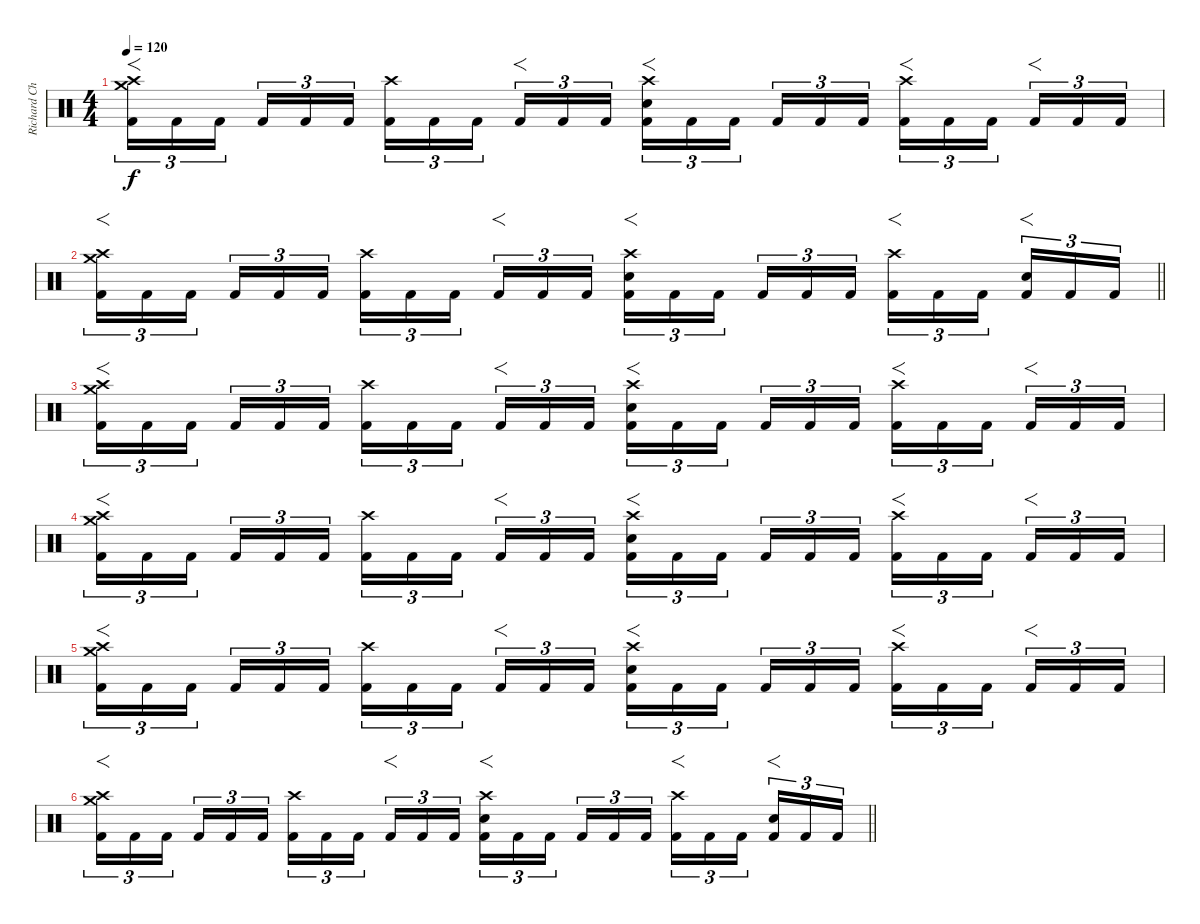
\track ("Richard Christy" "Richard Ch") {instrument percussion}
\staff {score}
\articulation defaults
\ts (4 4)
\tempo 120
\clef neutral
\ks c
("Crash high (hit)" "Crash medium (hit)" "Kick (hit) 2").16{f tu (3 2) dy f volume 6} "Kick (hit) 2".16{tu (3 2)} "Kick (hit) 2".16{tu (3 2) beam splitsecondary} "Kick (hit) 2".16{tu (3 2)} "Kick (hit) 2".16{tu (3 2)} "Kick (hit) 2".16{tu (3 2)} ("Crash high (hit)" "Kick (hit) 2").16{tu (3 2)} "Kick (hit) 2".16{tu (3 2)} "Kick (hit) 2".16{tu (3 2) beam splitsecondary} "Kick (hit) 2".16{f tu (3 2)} "Kick (hit) 2".16{tu (3 2)} "Kick (hit) 2".16{tu (3 2)} ("Crash high (hit)" "Snare (hit) 2" "Kick (hit) 2").16{f tu (3 2)} "Kick (hit) 2".16{tu (3 2)} "Kick (hit) 2".16{tu (3 2) beam splitsecondary} "Kick (hit) 2".16{tu (3 2)} "Kick (hit) 2".16{tu (3 2)} "Kick (hit) 2".16{tu (3 2)} ("Crash high (hit)" "Kick (hit) 2").16{f tu (3 2)} "Kick (hit) 2".16{tu (3 2)} "Kick (hit) 2".16{tu (3 2) beam splitsecondary} "Kick (hit) 2".16{f tu (3 2)} "Kick (hit) 2".16{tu (3 2)} "Kick (hit) 2".16{tu (3 2)} |
\barLineRight lightlight
("Crash high (hit)" "Crash medium (hit)" "Kick (hit) 2").16{f tu (3 2) volume 6} "Kick (hit) 2".16{tu (3 2)} "Kick (hit) 2".16{tu (3 2) beam splitsecondary} "Kick (hit) 2".16{tu (3 2)} "Kick (hit) 2".16{tu (3 2)} "Kick (hit) 2".16{tu (3 2)} ("Crash high (hit)" "Kick (hit) 2").16{tu (3 2)} "Kick (hit) 2".16{tu (3 2)} "Kick (hit) 2".16{tu (3 2) beam splitsecondary} "Kick (hit) 2".16{f tu (3 2)} "Kick (hit) 2".16{tu (3 2)} "Kick (hit) 2".16{tu (3 2)} ("Crash high (hit)" "Snare (hit) 2" "Kick (hit) 2").16{f tu (3 2)} "Kick (hit) 2".16{tu (3 2)} "Kick (hit) 2".16{tu (3 2) beam splitsecondary} "Kick (hit) 2".16{tu (3 2)} "Kick (hit) 2".16{tu (3 2)} "Kick (hit) 2".16{tu (3 2)} ("Crash high (hit)" "Kick (hit) 2").16{f tu (3 2)} "Kick (hit) 2".16{tu (3 2)} "Kick (hit) 2".16{tu (3 2) beam splitsecondary} ("Snare (hit) 2" "Kick (hit) 2").16{f tu (3 2)} "Kick (hit) 2".16{tu (3 2)} "Kick (hit) 2".16{tu (3 2)} |
("Crash high (hit)" "Crash medium (hit)" "Kick (hit) 2").16{f tu (3 2) volume 4} "Kick (hit) 2".16{tu (3 2)} "Kick (hit) 2".16{tu (3 2) beam splitsecondary} "Kick (hit) 2".16{tu (3 2)} "Kick (hit) 2".16{tu (3 2)} "Kick (hit) 2".16{tu (3 2)} ("Crash high (hit)" "Kick (hit) 2").16{tu (3 2)} "Kick (hit) 2".16{tu (3 2)} "Kick (hit) 2".16{tu (3 2) beam splitsecondary} "Kick (hit) 2".16{f tu (3 2)} "Kick (hit) 2".16{tu (3 2)} "Kick (hit) 2".16{tu (3 2)} ("Crash high (hit)" "Snare (hit) 2" "Kick (hit) 2").16{f tu (3 2)} "Kick (hit) 2".16{tu (3 2)} "Kick (hit) 2".16{tu (3 2) beam splitsecondary} "Kick (hit) 2".16{tu (3 2)} "Kick (hit) 2".16{tu (3 2)} "Kick (hit) 2".16{tu (3 2)} ("Crash high (hit)" "Kick (hit) 2").16{f tu (3 2)} "Kick (hit) 2".16{tu (3 2)} "Kick (hit) 2".16{tu (3 2) beam splitsecondary} "Kick (hit) 2".16{f tu (3 2)} "Kick (hit) 2".16{tu (3 2)} "Kick (hit) 2".16{tu (3 2)} |
("Crash high (hit)" "Crash medium (hit)" "Kick (hit) 2").16{f tu (3 2) volume 3} "Kick (hit) 2".16{tu (3 2)} "Kick (hit) 2".16{tu (3 2) beam splitsecondary} "Kick (hit) 2".16{tu (3 2)} "Kick (hit) 2".16{tu (3 2)} "Kick (hit) 2".16{tu (3 2)} ("Crash high (hit)" "Kick (hit) 2").16{tu (3 2)} "Kick (hit) 2".16{tu (3 2)} "Kick (hit) 2".16{tu (3 2) beam splitsecondary} "Kick (hit) 2".16{f tu (3 2)} "Kick (hit) 2".16{tu (3 2)} "Kick (hit) 2".16{tu (3 2)} ("Crash high (hit)" "Snare (hit) 2" "Kick (hit) 2").16{f tu (3 2)} "Kick (hit) 2".16{tu (3 2)} "Kick (hit) 2".16{tu (3 2) beam splitsecondary} "Kick (hit) 2".16{tu (3 2)} "Kick (hit) 2".16{tu (3 2)} "Kick (hit) 2".16{tu (3 2)} ("Crash high (hit)" "Kick (hit) 2").16{f tu (3 2)} "Kick (hit) 2".16{tu (3 2)} "Kick (hit) 2".16{tu (3 2) beam splitsecondary} "Kick (hit) 2".16{f tu (3 2)} "Kick (hit) 2".16{tu (3 2)} "Kick (hit) 2".16{tu (3 2)} |
("Crash high (hit)" "Crash medium (hit)" "Kick (hit) 2").16{f tu (3 2) volume 2} "Kick (hit) 2".16{tu (3 2)} "Kick (hit) 2".16{tu (3 2) beam splitsecondary} "Kick (hit) 2".16{tu (3 2)} "Kick (hit) 2".16{tu (3 2)} "Kick (hit) 2".16{tu (3 2)} ("Crash high (hit)" "Kick (hit) 2").16{tu (3 2)} "Kick (hit) 2".16{tu (3 2)} "Kick (hit) 2".16{tu (3 2) beam splitsecondary} "Kick (hit) 2".16{f tu (3 2)} "Kick (hit) 2".16{tu (3 2)} "Kick (hit) 2".16{tu (3 2)} ("Crash high (hit)" "Snare (hit) 2" "Kick (hit) 2").16{f tu (3 2)} "Kick (hit) 2".16{tu (3 2)} "Kick (hit) 2".16{tu (3 2) beam splitsecondary} "Kick (hit) 2".16{tu (3 2)} "Kick (hit) 2".16{tu (3 2)} "Kick (hit) 2".16{tu (3 2)} ("Crash high (hit)" "Kick (hit) 2").16{f tu (3 2)} "Kick (hit) 2".16{tu (3 2)} "Kick (hit) 2".16{tu (3 2) beam splitsecondary} "Kick (hit) 2".16{f tu (3 2)} "Kick (hit) 2".16{tu (3 2)} "Kick (hit) 2".16{tu (3 2)} |
\barLineRight lightlight
("Crash high (hit)" "Crash medium (hit)" "Kick (hit) 2").16{f tu (3 2) volume 1} "Kick (hit) 2".16{tu (3 2)} "Kick (hit) 2".16{tu (3 2) beam splitsecondary} "Kick (hit) 2".16{tu (3 2)} "Kick (hit) 2".16{tu (3 2)} "Kick (hit) 2".16{tu (3 2)} ("Crash high (hit)" "Kick (hit) 2").16{tu (3 2)} "Kick (hit) 2".16{tu (3 2)} "Kick (hit) 2".16{tu (3 2) beam splitsecondary} "Kick (hit) 2".16{f tu (3 2)} "Kick (hit) 2".16{tu (3 2)} "Kick (hit) 2".16{tu (3 2)} ("Crash high (hit)" "Snare (hit) 2" "Kick (hit) 2").16{f tu (3 2)} "Kick (hit) 2".16{tu (3 2)} "Kick (hit) 2".16{tu (3 2) beam splitsecondary} "Kick (hit) 2".16{tu (3 2)} "Kick (hit) 2".16{tu (3 2)} "Kick (hit) 2".16{tu (3 2)} ("Crash high (hit)" "Kick (hit) 2").16{f tu (3 2)} "Kick (hit) 2".16{tu (3 2)} "Kick (hit) 2".16{tu (3 2) beam splitsecondary} ("Snare (hit) 2" "Kick (hit) 2").16{f tu (3 2)} "Kick (hit) 2".16{tu (3 2)} "Kick (hit) 2".16{tu (3 2)}
